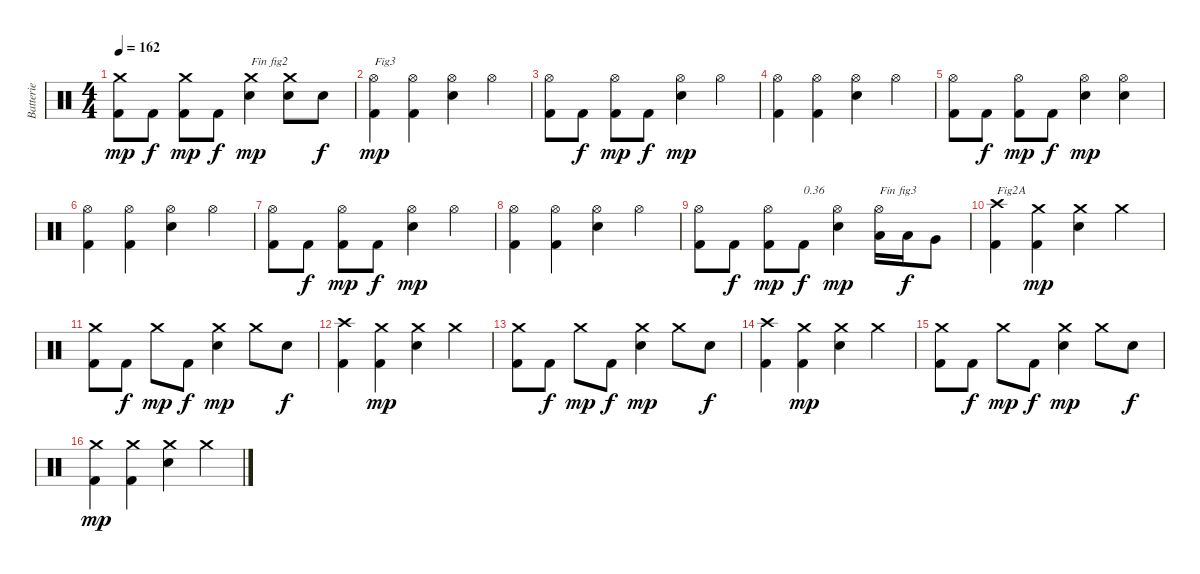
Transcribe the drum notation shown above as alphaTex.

\track ("Batterie" "Batterie") {instrument percussion}
\staff {score}
\articulation defaults
\ts (4 4)
\tempo 162
\clef neutral
\ks c
("Kick (hit) 2" "Crash medium (hit)").8{dy mp} "Kick (hit) 2".8{dy f} ("Kick (hit) 2" "Crash medium (hit)").8{dy mp} "Kick (hit) 2".8{dy f} ("Electric Snare (hit)" "Crash medium (hit)").4{txt "Fin fig2" dy mp} ("Electric Snare (hit)" "Crash medium (hit)").8 "Electric Snare (hit)".8{dy f} |
("Kick (hit) 2" "Hi-Hat (open)").4{txt "Fig3" dy mp} ("Kick (hit) 2" "Hi-Hat (open)").4 ("Electric Snare (hit)" "Hi-Hat (open)").4 "Hi-Hat (open)".4 |
("Kick (hit) 2" "Hi-Hat (open)").8 "Kick (hit) 2".8{dy f} ("Kick (hit) 2" "Hi-Hat (open)").8{dy mp} "Kick (hit) 2".8{dy f} ("Electric Snare (hit)" "Hi-Hat (open)").4{dy mp} "Hi-Hat (open)".4 |
("Kick (hit) 2" "Hi-Hat (open)").4 ("Kick (hit) 2" "Hi-Hat (open)").4 ("Electric Snare (hit)" "Hi-Hat (open)").4 "Hi-Hat (open)".4 |
("Kick (hit) 2" "Hi-Hat (open)").8 "Kick (hit) 2".8{dy f} ("Kick (hit) 2" "Hi-Hat (open)").8{dy mp} "Kick (hit) 2".8{dy f} ("Electric Snare (hit)" "Hi-Hat (open)").4{dy mp} ("Electric Snare (hit)" "Hi-Hat (open)").4 |
("Kick (hit) 2" "Hi-Hat (open)").4 ("Kick (hit) 2" "Hi-Hat (open)").4 ("Electric Snare (hit)" "Hi-Hat (open)").4 "Hi-Hat (open)".4 |
("Kick (hit) 2" "Hi-Hat (open)").8 "Kick (hit) 2".8{dy f} ("Kick (hit) 2" "Hi-Hat (open)").8{dy mp} "Kick (hit) 2".8{dy f} ("Electric Snare (hit)" "Hi-Hat (open)").4{dy mp} "Hi-Hat (open)".4 |
("Kick (hit) 2" "Hi-Hat (open)").4 ("Kick (hit) 2" "Hi-Hat (open)").4 ("Electric Snare (hit)" "Hi-Hat (open)").4 "Hi-Hat (open)".4 |
("Kick (hit) 2" "Hi-Hat (open)").8 "Kick (hit) 2".8{dy f} ("Kick (hit) 2" "Hi-Hat (open)").8{dy mp} "Kick (hit) 2".8{txt "0.36" dy f} ("Electric Snare (hit)" "Hi-Hat (open)").4{dy mp} ("Low Tom (hit)" "Hi-Hat (open)").16{txt "Fin fig3"} "Low Tom (hit)".16{dy f} "Very Low Tom (hit)".8 |
("Kick (hit) 2" "Crash high (hit)").4{txt "Fig2A"} ("Kick (hit) 2" "Crash medium (hit)").4{dy mp} ("Electric Snare (hit)" "Crash medium (hit)").4 "Crash medium (hit)".4 |
("Kick (hit) 2" "Crash medium (hit)").8 "Kick (hit) 2".8{dy f} "Crash medium (hit)".8{dy mp} "Kick (hit) 2".8{dy f} ("Electric Snare (hit)" "Crash medium (hit)").4{dy mp} "Crash medium (hit)".8 "Electric Snare (hit)".8{dy f} |
("Kick (hit) 2" "Crash high (hit)").4 ("Kick (hit) 2" "Crash medium (hit)").4{dy mp} ("Electric Snare (hit)" "Crash medium (hit)").4 "Crash medium (hit)".4 |
("Kick (hit) 2" "Crash medium (hit)").8 "Kick (hit) 2".8{dy f} "Crash medium (hit)".8{dy mp} "Kick (hit) 2".8{dy f} ("Electric Snare (hit)" "Crash medium (hit)").4{dy mp} "Crash medium (hit)".8 "Electric Snare (hit)".8{dy f} |
("Kick (hit) 2" "Crash high (hit)").4 ("Kick (hit) 2" "Crash medium (hit)").4{dy mp} ("Electric Snare (hit)" "Crash medium (hit)").4 "Crash medium (hit)".4 |
("Kick (hit) 2" "Crash medium (hit)").8 "Kick (hit) 2".8{dy f} "Crash medium (hit)".8{dy mp} "Kick (hit) 2".8{dy f} ("Electric Snare (hit)" "Crash medium (hit)").4{dy mp} "Crash medium (hit)".8 "Electric Snare (hit)".8{dy f} |
("Kick (hit) 2" "Crash medium (hit)").4{dy mp} ("Kick (hit) 2" "Crash medium (hit)").4 ("Electric Snare (hit)" "Crash medium (hit)").4 "Crash medium (hit)".4
